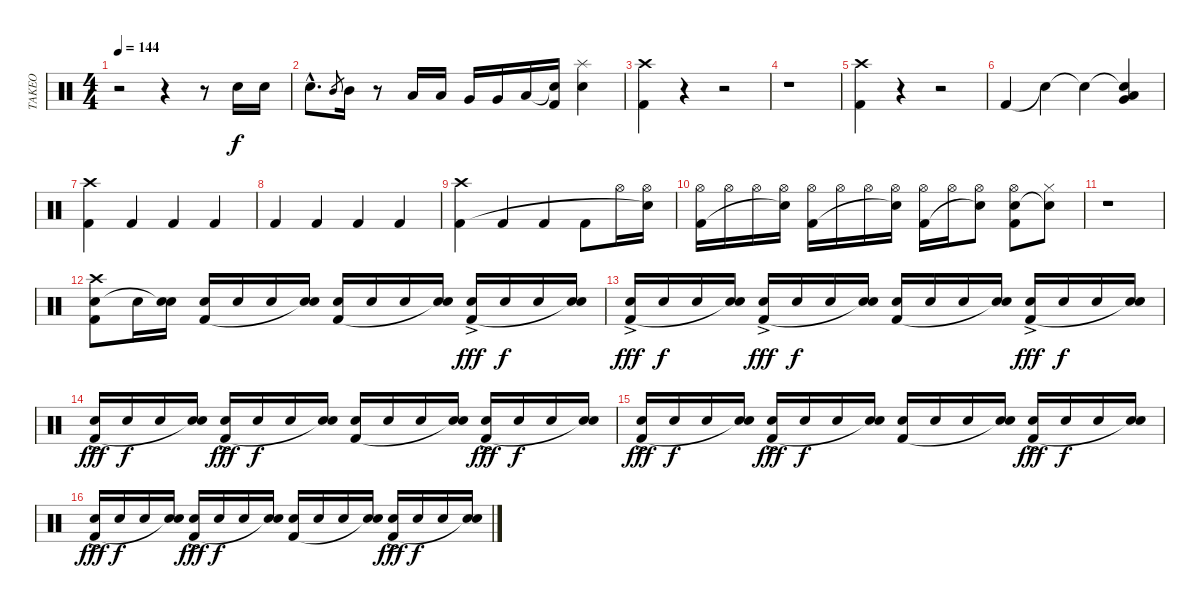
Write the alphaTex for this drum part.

\track ("TAKEO" "TAKEO") {instrument percussion}
\staff {score}
\articulation defaults
\ts (4 4)
\tempo 144
\clef neutral
\ks c
r.2{dy f} r.4 r.8 "Electric Snare (hit)".16 "Electric Snare (hit)".16 |
"Electric Snare (hit)"{hac}.8{d} "Mid Tom (hit)".8{gr} "Mid Tom (hit)".16 r.8 "Low Tom (hit)".16 "Low Tom (hit)".16 "Very Low Tom (hit)".16 "Very Low Tom (hit)".16 "Low Floor Tom (hit)".16 ("Snare (hit)"{t} "Kick (hit) 2").16 ("Splash (hit)" "Electric Snare (hit)").4 |
("Crash high (hit)" "Kick (hit) 2").4 r.4 r.2 |
r.1 |
("Crash high (hit)" "Kick (hit) 2").4 r.4 r.2 |
"Kick (hit) 2".4 "Snare (hit)"{t}.4 "Snare (hit)"{t}.4 ("Snare (hit)"{t} "Very Low Tom (hit)" "Low Floor Tom (hit)").4 |
("Crash high (hit)" "Kick (hit) 2").4 "Kick (hit) 2".4 "Kick (hit) 2".4 "Kick (hit) 2".4 |
"Kick (hit) 2".4 "Kick (hit) 2".4 "Kick (hit) 2".4 "Kick (hit) 2".4 |
("Crash high (hit)" "Kick (hit) 2").4 "Kick (hit) 2".4 "Kick (hit) 2".4 "Kick (hit) 2".8 "Hi-Hat (open)".16 ("Hi-Hat (open)" "Snare (hit)"{t}).16 |
("Hi-Hat (open)" "Kick (hit) 2").16 "Hi-Hat (open)".16 "Hi-Hat (open)".16 ("Hi-Hat (open)" "Snare (hit)"{t}).16 ("Hi-Hat (open)" "Kick (hit) 2").16 "Hi-Hat (open)".16 "Hi-Hat (open)".16 ("Hi-Hat (open)" "Snare (hit)"{t}).16 ("Hi-Hat (open)" "Kick (hit) 2").16 "Hi-Hat (open)".16 ("Hi-Hat (open)" "Snare (hit)"{t}).8 ("Hi-Hat (open)" "Electric Snare (hit)" "Kick (hit) 2").8 ("Hi-Hat (closed)" "Snare (hit)"{t}).8 |
r.1 |
("Crash high (hit)" "Electric Snare (hit)" "Kick (hit) 2").8 "Electric Snare (hit)".16 ("Electric Snare (hit)" "Snare (hit)"{t}).16 ("Electric Snare (hit)" "Kick (hit) 2").16 "Electric Snare (hit)".16 "Electric Snare (hit)".16 ("Electric Snare (hit)" "Snare (hit)"{t}).16 ("Electric Snare (hit)" "Kick (hit) 2").16 "Electric Snare (hit)".16 "Electric Snare (hit)".16 ("Electric Snare (hit)" "Snare (hit)"{t}).16 ("Electric Snare (hit)"{ac} "Kick (hit) 2").16{dy fff} "Electric Snare (hit)".16{dy f} "Electric Snare (hit)".16 ("Electric Snare (hit)" "Snare (hit)"{t}).16 |
("Electric Snare (hit)"{ac} "Kick (hit) 2").16{dy fff} "Electric Snare (hit)".16{dy f} "Electric Snare (hit)".16 ("Electric Snare (hit)" "Snare (hit)"{t}).16 ("Electric Snare (hit)"{ac} "Kick (hit) 2").16{dy fff} "Electric Snare (hit)".16{dy f} "Electric Snare (hit)".16 ("Electric Snare (hit)" "Snare (hit)"{t}).16 ("Electric Snare (hit)" "Kick (hit) 2").16 "Electric Snare (hit)".16 "Electric Snare (hit)".16 ("Electric Snare (hit)" "Snare (hit)"{t}).16 ("Electric Snare (hit)"{ac} "Kick (hit) 2").16{dy fff} "Electric Snare (hit)".16{dy f} "Electric Snare (hit)".16 ("Electric Snare (hit)" "Snare (hit)"{t}).16 |
("Electric Snare (hit)"{ac} "Kick (hit) 2").16{dy fff} "Electric Snare (hit)".16{dy f} "Electric Snare (hit)".16 ("Electric Snare (hit)" "Snare (hit)"{t}).16 ("Electric Snare (hit)"{ac} "Kick (hit) 2").16{dy fff} "Electric Snare (hit)".16{dy f} "Electric Snare (hit)".16 ("Electric Snare (hit)" "Snare (hit)"{t}).16 ("Electric Snare (hit)" "Kick (hit) 2").16 "Electric Snare (hit)".16 "Electric Snare (hit)".16 ("Electric Snare (hit)" "Snare (hit)"{t}).16 ("Electric Snare (hit)"{ac} "Kick (hit) 2").16{dy fff} "Electric Snare (hit)".16{dy f} "Electric Snare (hit)".16 ("Electric Snare (hit)" "Snare (hit)"{t}).16 |
("Electric Snare (hit)"{ac} "Kick (hit) 2").16{dy fff} "Electric Snare (hit)".16{dy f} "Electric Snare (hit)".16 ("Electric Snare (hit)" "Snare (hit)"{t}).16 ("Electric Snare (hit)"{ac} "Kick (hit) 2").16{dy fff} "Electric Snare (hit)".16{dy f} "Electric Snare (hit)".16 ("Electric Snare (hit)" "Snare (hit)"{t}).16 ("Electric Snare (hit)" "Kick (hit) 2").16 "Electric Snare (hit)".16 "Electric Snare (hit)".16 ("Electric Snare (hit)" "Snare (hit)"{t}).16 ("Electric Snare (hit)"{ac} "Kick (hit) 2").16{dy fff} "Electric Snare (hit)".16{dy f} "Electric Snare (hit)".16 ("Electric Snare (hit)" "Snare (hit)"{t}).16 |
("Electric Snare (hit)"{ac} "Kick (hit) 2").16{dy fff} "Electric Snare (hit)".16{dy f} "Electric Snare (hit)".16 ("Electric Snare (hit)" "Snare (hit)"{t}).16 ("Electric Snare (hit)"{ac} "Kick (hit) 2").16{dy fff} "Electric Snare (hit)".16{dy f} "Electric Snare (hit)".16 ("Electric Snare (hit)" "Snare (hit)"{t}).16 ("Electric Snare (hit)" "Kick (hit) 2").16 "Electric Snare (hit)".16 "Electric Snare (hit)".16 ("Electric Snare (hit)" "Snare (hit)"{t}).16 ("Electric Snare (hit)"{ac} "Kick (hit) 2").16{dy fff} "Electric Snare (hit)".16{dy f} "Electric Snare (hit)".16 ("Electric Snare (hit)" "Snare (hit)"{t}).16
